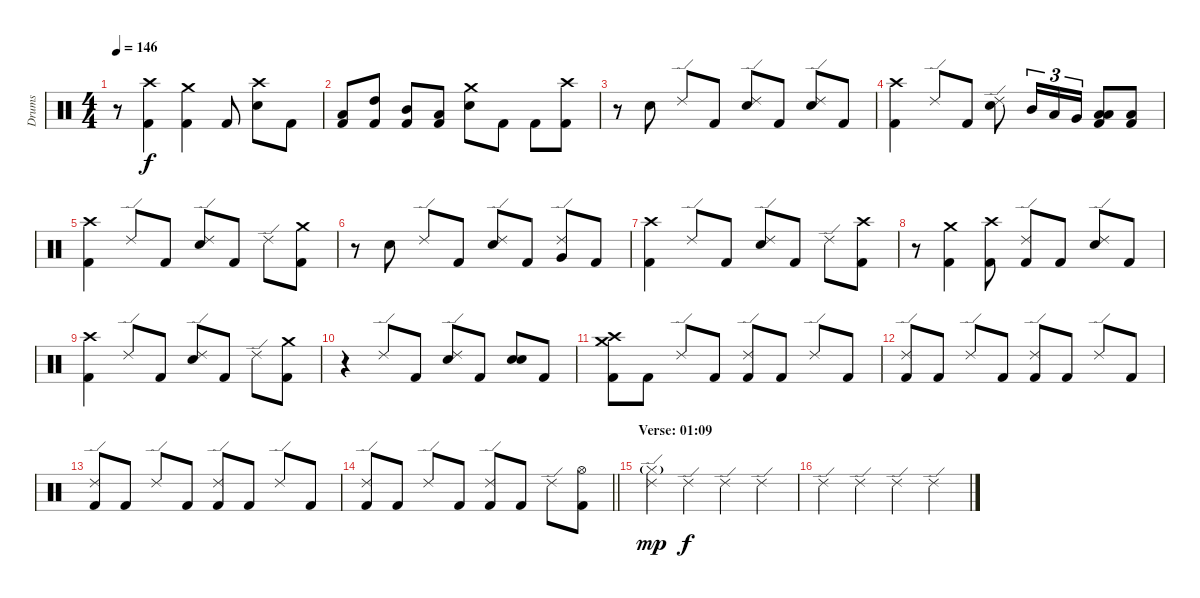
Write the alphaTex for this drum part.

\track ("Drums" "Drums") {instrument percussion}
\staff {score}
\articulation defaults
\ts (4 4)
\tempo 146
\clef neutral
\ks c
r.8{dy f} ("Crash high (hit)" "Kick (hit) 2").4 ("Crash medium (hit)" "Kick (hit) 2").4 "Kick (hit) 2".8 ("Crash high (hit)" "Electric Snare (hit)").8 "Kick (hit) 2".8 |
("Low Tom (hit)" "Kick (hit) 2").8 ("High Tom (hit)" "Kick (hit) 2").8 ("Mid Tom (hit)" "Kick (hit) 2").8 ("Low Floor Tom (hit)" "Kick (hit) 2").8 ("Crash medium (hit)" "Electric Snare (hit)").8 "Kick (hit) 2".8 "Kick (hit) 2".8 ("Crash high (hit)" "Kick (hit) 2").8 |
r.8 "Electric Snare (hit)".8 "Ride (edge) 2".8 "Kick (hit) 2".8 ("Ride (edge) 2" "Electric Snare (hit)").8 "Kick (hit) 2".8 ("Ride (edge) 2" "Electric Snare (hit)").8 "Kick (hit) 2".8 |
("Crash high (hit)" "Kick (hit) 2").4 "Ride (edge) 2".8 "Kick (hit) 2".8 ("Ride (edge) 2" "Electric Snare (hit)").8 "Mid Tom (hit)".16{tu (3 2)} "Low Tom (hit)".16{tu (3 2)} "Very Low Tom (hit)".16{tu (3 2)} ("Low Floor Tom (hit)" "Low Floor Tom (hit)" "Kick (hit) 2").8 ("Low Floor Tom (hit)" "Kick (hit) 2").8 |
("Crash high (hit)" "Kick (hit) 2").4 "Ride (edge) 2".8 "Kick (hit) 2".8 ("Ride (edge) 2" "Electric Snare (hit)").8 "Kick (hit) 2".8 "Ride (edge) 2".8 ("Crash medium (hit)" "Kick (hit) 2").8 |
r.8 "Electric Snare (hit)".8 "Ride (edge) 2".8 "Kick (hit) 2".8 ("Ride (edge) 2" "Electric Snare (hit)").8 "Kick (hit) 2".8 ("Ride (edge) 2" "Very Low Tom (hit)").8 "Kick (hit) 2".8 |
("Crash high (hit)" "Kick (hit) 2").4 "Ride (edge) 2".8 "Kick (hit) 2".8 ("Ride (edge) 2" "Electric Snare (hit)").8 "Kick (hit) 2".8 "Ride (edge) 2".8 ("Crash high (hit)" "Kick (hit) 2").8 |
r.8 ("Crash medium (hit)" "Kick (hit) 2").4 ("Crash high (hit)" "Kick (hit) 2").8 ("Ride (edge) 2" "Kick (hit) 2").8 "Kick (hit) 2".8 ("Ride (edge) 2" "Electric Snare (hit)").8 "Kick (hit) 2".8 |
("Crash high (hit)" "Kick (hit) 2").4 "Ride (edge) 2".8 "Kick (hit) 2".8 ("Ride (edge) 2" "Electric Snare (hit)").8 "Kick (hit) 2".8 "Ride (edge) 2".8 ("Crash medium (hit)" "Kick (hit) 2").8 |
r.4 "Ride (edge) 2".8 "Kick (hit) 2".8 ("Ride (edge) 2" "Electric Snare (hit)").8 "Kick (hit) 2".8 ("Electric Snare (hit)" "Electric Snare (hit)").8{bu 240} "Kick (hit) 2".8 |
("Crash high (hit)" "Crash medium (hit)" "Kick (hit) 2").8 "Kick (hit) 2".8 "Ride (edge) 2".8 "Kick (hit) 2".8 ("Ride (edge) 2" "Kick (hit) 2").8 "Kick (hit) 2".8 "Ride (edge) 2".8 "Kick (hit) 2".8 |
("Ride (edge) 2" "Kick (hit) 2").8 "Kick (hit) 2".8 "Ride (edge) 2".8 "Kick (hit) 2".8 ("Ride (edge) 2" "Kick (hit) 2").8 "Kick (hit) 2".8 "Ride (edge) 2".8 "Kick (hit) 2".8 |
("Ride (edge) 2" "Kick (hit) 2").8 "Kick (hit) 2".8 "Ride (edge) 2".8 "Kick (hit) 2".8 ("Ride (edge) 2" "Kick (hit) 2").8 "Kick (hit) 2".8 "Ride (edge) 2".8 "Kick (hit) 2".8 |
\barLineRight lightlight
("Ride (edge) 2" "Kick (hit) 2").8 "Kick (hit) 2".8 "Ride (edge) 2".8 "Kick (hit) 2".8 ("Ride (edge) 2" "Kick (hit) 2").8 "Kick (hit) 2".8 "Ride (edge) 2".8 ("Hi-Hat (open)" "Kick (hit) 2").8 |
\section ("" "Verse: 01:09")
("Ride (edge) 2" "Hi-Hat (closed)"{g}).4{dy mp} "Ride (edge) 2".4{dy f} "Ride (edge) 2".4 "Ride (edge) 2".4 |
"Ride (edge) 2".4 "Ride (edge) 2".4 "Ride (edge) 2".4 "Ride (edge) 2".4
